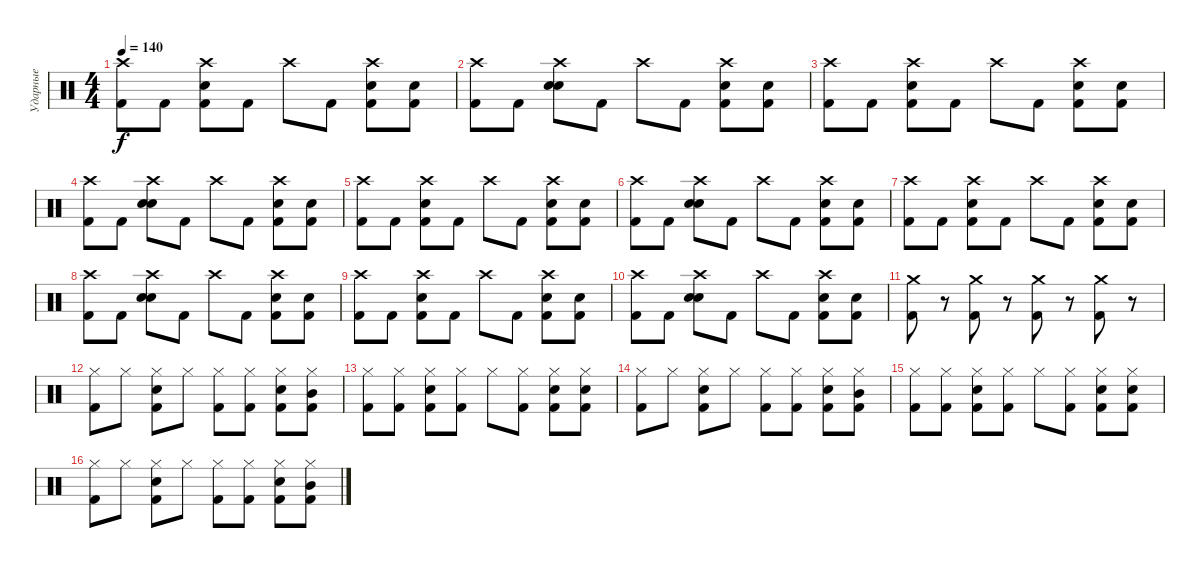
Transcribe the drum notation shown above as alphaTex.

\track ("Ударные" "Ударные") {instrument percussion}
\staff {score}
\articulation defaults
\ts (4 4)
\tempo 140
\clef neutral
\ks c
("Crash high (hit)" "Kick (hit) 2").8{dy f} "Kick (hit) 2".8 ("Crash high (hit)" "Kick (hit) 2" "Snare (hit) 2").8 "Kick (hit) 2".8 "Crash high (hit)".8 "Kick (hit) 2".8 ("Crash high (hit)" "Snare (hit) 2" "Kick (hit) 2").8 ("Snare (hit) 2" "Kick (hit) 2").8 |
("Crash high (hit)" "Kick (hit) 2").8 "Kick (hit) 2".8 ("Crash high (hit)" "Snare (hit) 2" "Electric Snare (hit)").8 "Kick (hit) 2".8 "Crash high (hit)".8 "Kick (hit) 2".8 ("Crash high (hit)" "Snare (hit) 2" "Kick (hit) 2").8 ("Snare (hit) 2" "Kick (hit) 2").8 |
("Crash high (hit)" "Kick (hit) 2").8 "Kick (hit) 2".8 ("Crash high (hit)" "Kick (hit) 2" "Snare (hit) 2").8 "Kick (hit) 2".8 "Crash high (hit)".8 "Kick (hit) 2".8 ("Crash high (hit)" "Snare (hit) 2" "Kick (hit) 2").8 ("Snare (hit) 2" "Kick (hit) 2").8 |
("Crash high (hit)" "Kick (hit) 2").8 "Kick (hit) 2".8 ("Crash high (hit)" "Snare (hit) 2" "Electric Snare (hit)").8 "Kick (hit) 2".8 "Crash high (hit)".8 "Kick (hit) 2".8 ("Crash high (hit)" "Snare (hit) 2" "Kick (hit) 2").8 ("Snare (hit) 2" "Kick (hit) 2").8 |
("Crash high (hit)" "Kick (hit) 2").8 "Kick (hit) 2".8 ("Crash high (hit)" "Kick (hit) 2" "Snare (hit) 2").8 "Kick (hit) 2".8 "Crash high (hit)".8 "Kick (hit) 2".8 ("Crash high (hit)" "Snare (hit) 2" "Kick (hit) 2").8 ("Snare (hit) 2" "Kick (hit) 2").8 |
("Crash high (hit)" "Kick (hit) 2").8 "Kick (hit) 2".8 ("Crash high (hit)" "Snare (hit) 2" "Electric Snare (hit)").8 "Kick (hit) 2".8 "Crash high (hit)".8 "Kick (hit) 2".8 ("Crash high (hit)" "Snare (hit) 2" "Kick (hit) 2").8 ("Snare (hit) 2" "Kick (hit) 2").8 |
("Crash high (hit)" "Kick (hit) 2").8 "Kick (hit) 2".8 ("Crash high (hit)" "Kick (hit) 2" "Snare (hit) 2").8 "Kick (hit) 2".8 "Crash high (hit)".8 "Kick (hit) 2".8 ("Crash high (hit)" "Snare (hit) 2" "Kick (hit) 2").8 ("Snare (hit) 2" "Kick (hit) 2").8 |
("Crash high (hit)" "Kick (hit) 2").8 "Kick (hit) 2".8 ("Crash high (hit)" "Snare (hit) 2" "Electric Snare (hit)").8 "Kick (hit) 2".8 "Crash high (hit)".8 "Kick (hit) 2".8 ("Crash high (hit)" "Snare (hit) 2" "Kick (hit) 2").8 ("Snare (hit) 2" "Kick (hit) 2").8 |
("Crash high (hit)" "Kick (hit) 2").8 "Kick (hit) 2".8 ("Crash high (hit)" "Kick (hit) 2" "Snare (hit) 2").8 "Kick (hit) 2".8 "Crash high (hit)".8 "Kick (hit) 2".8 ("Crash high (hit)" "Snare (hit) 2" "Kick (hit) 2").8 ("Snare (hit) 2" "Kick (hit) 2").8 |
("Crash high (hit)" "Kick (hit) 2").8 "Kick (hit) 2".8 ("Crash high (hit)" "Snare (hit) 2" "Electric Snare (hit)").8 "Kick (hit) 2".8 "Crash high (hit)".8 "Kick (hit) 2".8 ("Crash high (hit)" "Snare (hit) 2" "Kick (hit) 2").8 ("Snare (hit) 2" "Kick (hit) 2").8 |
("Kick (hit) 2" "Crash medium (hit)").8 r.8 ("Kick (hit) 2" "Crash medium (hit)").8 r.8 ("Kick (hit) 2" "Crash medium (hit)").8 r.8 ("Kick (hit) 2" "Crash medium (hit)").8 r.8 |
("Hi-Hat (closed)" "Kick (hit) 2").8 "Hi-Hat (closed)".8 ("Hi-Hat (closed)" "Kick (hit) 2" "Snare (hit) 2").8 "Hi-Hat (closed)".8 ("Hi-Hat (closed)" "Kick (hit) 2").8 ("Hi-Hat (closed)" "Kick (hit) 2").8 ("Hi-Hat (closed)" "Snare (hit) 2" "Kick (hit) 2").8 ("Mid Tom (hit)" "Kick (hit) 2" "Hi-Hat (closed)").8 |
("Hi-Hat (closed)" "Kick (hit) 2").8 ("Hi-Hat (closed)" "Kick (hit) 2").8 ("Hi-Hat (closed)" "Kick (hit) 2" "Snare (hit) 2").8 ("Hi-Hat (closed)" "Kick (hit) 2").8 "Hi-Hat (closed)".8 ("Hi-Hat (closed)" "Kick (hit) 2").8 ("Hi-Hat (closed)" "Snare (hit) 2" "Kick (hit) 2").8 ("Snare (hit) 2" "Kick (hit) 2" "Hi-Hat (closed)").8 |
("Hi-Hat (closed)" "Kick (hit) 2").8 "Hi-Hat (closed)".8 ("Hi-Hat (closed)" "Kick (hit) 2" "Snare (hit) 2").8 "Hi-Hat (closed)".8 ("Hi-Hat (closed)" "Kick (hit) 2").8 ("Hi-Hat (closed)" "Kick (hit) 2").8 ("Hi-Hat (closed)" "Snare (hit) 2" "Kick (hit) 2").8 ("Mid Tom (hit)" "Kick (hit) 2" "Hi-Hat (closed)").8 |
("Hi-Hat (closed)" "Kick (hit) 2").8 ("Hi-Hat (closed)" "Kick (hit) 2").8 ("Hi-Hat (closed)" "Kick (hit) 2" "Snare (hit) 2").8 ("Hi-Hat (closed)" "Kick (hit) 2").8 "Hi-Hat (closed)".8 ("Hi-Hat (closed)" "Kick (hit) 2").8 ("Hi-Hat (closed)" "Snare (hit) 2" "Kick (hit) 2").8 ("Snare (hit) 2" "Kick (hit) 2" "Hi-Hat (closed)").8 |
("Hi-Hat (closed)" "Kick (hit) 2").8 "Hi-Hat (closed)".8 ("Hi-Hat (closed)" "Kick (hit) 2" "Snare (hit) 2").8 "Hi-Hat (closed)".8 ("Hi-Hat (closed)" "Kick (hit) 2").8 ("Hi-Hat (closed)" "Kick (hit) 2").8 ("Hi-Hat (closed)" "Snare (hit) 2" "Kick (hit) 2").8 ("Mid Tom (hit)" "Kick (hit) 2" "Hi-Hat (closed)").8
